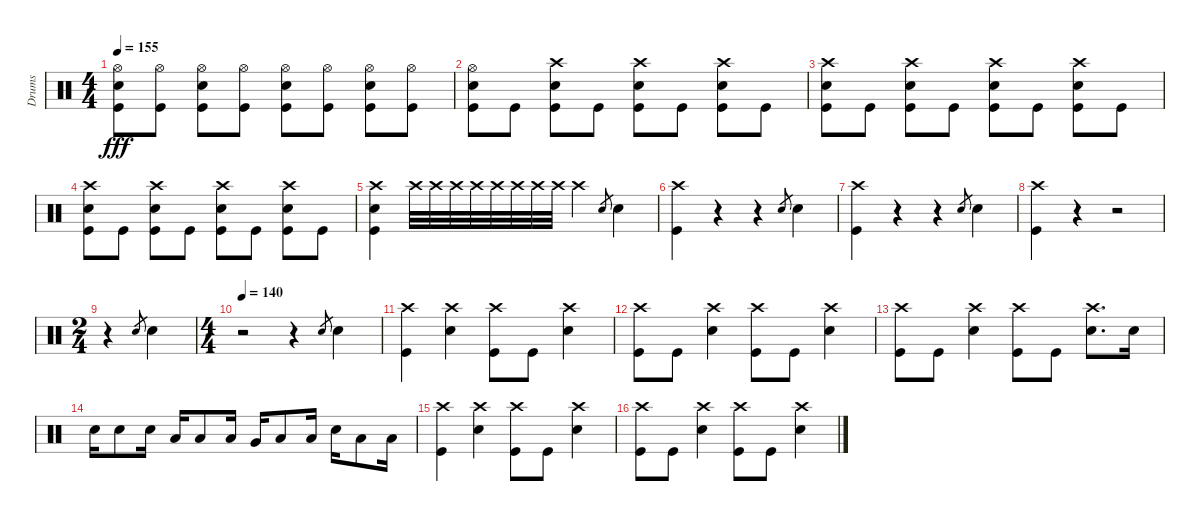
\track ("Drums" "Drums") {instrument percussion}
\staff {score}
\articulation defaults
\ts (4 4)
\tempo 155
\clef neutral
\ks c
("Hi-Hat (open)" "Snare (hit) 2" "Kick (hit)").8{dy fff} ("Hi-Hat (open)" "Kick (hit)").8 ("Hi-Hat (open)" "Snare (hit) 2" "Kick (hit)").8 ("Hi-Hat (open)" "Kick (hit)").8 ("Hi-Hat (open)" "Snare (hit) 2" "Kick (hit)").8 ("Hi-Hat (open)" "Kick (hit)").8 ("Hi-Hat (open)" "Snare (hit) 2" "Kick (hit)").8 ("Hi-Hat (open)" "Kick (hit)").8 |
("Hi-Hat (open)" "Snare (hit) 2" "Kick (hit)").8 "Kick (hit)".8 ("Crash high (hit)" "Snare (hit) 2" "Kick (hit)").8 "Kick (hit)".8 ("Crash high (hit)" "Snare (hit) 2" "Kick (hit)").8 "Kick (hit)".8 ("Crash high (hit)" "Snare (hit) 2" "Kick (hit)").8 "Kick (hit)".8 |
("Crash high (hit)" "Snare (hit) 2" "Kick (hit)").8 "Kick (hit)".8 ("Crash high (hit)" "Snare (hit) 2" "Kick (hit)").8 "Kick (hit)".8 ("Crash high (hit)" "Snare (hit) 2" "Kick (hit)").8 "Kick (hit)".8 ("Crash high (hit)" "Snare (hit) 2" "Kick (hit)").8 "Kick (hit)".8 |
("Crash high (hit)" "Snare (hit) 2" "Kick (hit)").8 "Kick (hit)".8 ("Crash high (hit)" "Snare (hit) 2" "Kick (hit)").8 "Kick (hit)".8 ("Crash high (hit)" "Snare (hit) 2" "Kick (hit)").8 "Kick (hit)".8 ("Crash high (hit)" "Snare (hit) 2" "Kick (hit)").8 "Kick (hit)".8 |
("Crash high (hit)" "Snare (hit) 2" "Kick (hit)").4 "Crash high (hit)".32 "Crash high (hit)".32 "Crash high (hit)".32 "Crash high (hit)".32 "Crash high (hit)".32 "Crash high (hit)".32 "Crash high (hit)".32 "Crash high (hit)".32 "Crash high (hit)".4 "Snare (hit) 2".8{gr} "Snare (hit) 2".4 |
("Crash high (hit)" "Kick (hit)").4 r.4 r.4 "Snare (hit) 2".8{gr} "Snare (hit) 2".4 |
("Crash high (hit)" "Kick (hit)").4 r.4 r.4 "Snare (hit) 2".8{gr} "Snare (hit) 2".4 |
("Crash high (hit)" "Kick (hit)").4 r.4 r.2 |
\ts (2 4)
r.4 "Snare (hit) 2".8{gr} "Snare (hit) 2".4 |
\ts (4 4)
\tempo 140
r.2 r.4 "Snare (hit) 2".8{gr} "Snare (hit) 2".4 |
("Crash high (hit)" "Kick (hit)").4 ("Crash high (hit)" "Snare (hit) 2").4 ("Crash high (hit)" "Kick (hit)").8 "Kick (hit)".8 ("Crash high (hit)" "Snare (hit) 2").4 |
("Crash high (hit)" "Kick (hit)").8 "Kick (hit)".8 ("Crash high (hit)" "Snare (hit) 2").4 ("Crash high (hit)" "Kick (hit)").8 "Kick (hit)".8 ("Crash high (hit)" "Snare (hit) 2").4 |
("Crash high (hit)" "Kick (hit)").8 "Kick (hit)".8 ("Crash high (hit)" "Snare (hit) 2").4 ("Crash high (hit)" "Kick (hit)").8 "Kick (hit)".8 ("Crash high (hit)" "Snare (hit) 2").8{d} "Snare (hit) 2".16 |
"Snare (hit) 2".16 "Snare (hit) 2".8 "Snare (hit) 2".16 "Low Tom (hit)".16 "Low Tom (hit)".8 "Low Tom (hit)".16 "Very Low Tom (hit)".16 "Low Tom (hit)".8 "Low Tom (hit)".16 "Snare (hit) 2".16 "Low Tom (hit)".8 "Low Tom (hit)".16 |
("Crash high (hit)" "Kick (hit)").4 ("Crash high (hit)" "Snare (hit) 2").4 ("Crash high (hit)" "Kick (hit)").8 "Kick (hit)".8 ("Crash high (hit)" "Snare (hit) 2").4 |
("Crash high (hit)" "Kick (hit)").8 "Kick (hit)".8 ("Crash high (hit)" "Snare (hit) 2").4 ("Crash high (hit)" "Kick (hit)").8 "Kick (hit)".8 ("Crash high (hit)" "Snare (hit) 2").4
